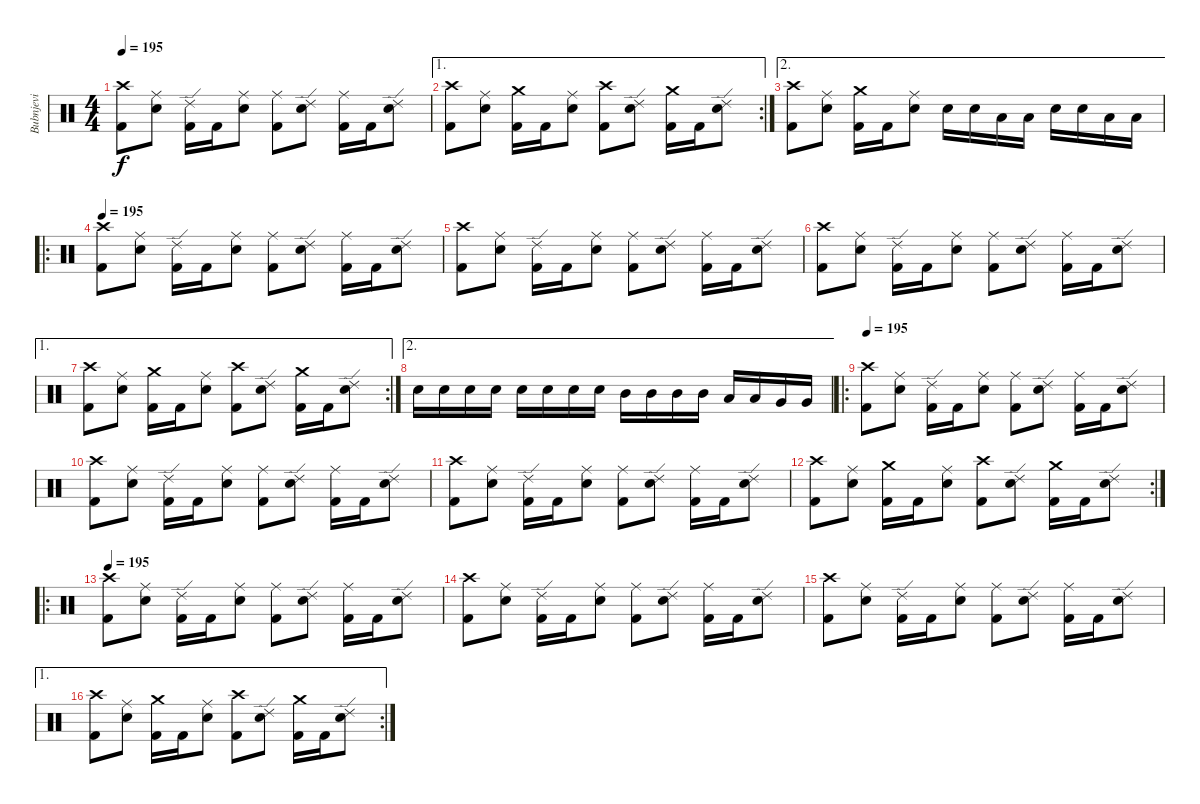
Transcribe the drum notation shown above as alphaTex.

\track ("Bubnjevi" "Bubnjevi") {instrument percussion}
\staff {score}
\articulation defaults
\ts (4 4)
\tempo 195
\clef neutral
\ks c
("Crash high (hit)" "Kick (hit) 2").8{dy f} ("Ride (middle)" "Electric Snare (hit)").8 ("Ride (edge) 2" "Kick (hit) 2").16 "Kick (hit) 2".16 ("Ride (middle)" "Electric Snare (hit)").8 ("Ride (middle)" "Kick (hit) 2").8 ("Ride (edge) 2" "Electric Snare (hit)").8 ("Ride (middle)" "Kick (hit) 2").16 "Kick (hit) 2".16 ("Ride (edge) 2" "Electric Snare (hit)").8 |
\ae 1
\rc 2
("Crash high (hit)" "Kick (hit) 2").8 ("Ride (middle)" "Electric Snare (hit)").8 ("Crash medium (hit)" "Kick (hit) 2").16 "Kick (hit) 2".16 ("Ride (middle)" "Electric Snare (hit)").8 ("Crash high (hit)" "Kick (hit) 2").8 ("Ride (edge) 2" "Electric Snare (hit)").8 ("Crash medium (hit)" "Kick (hit) 2").16 "Kick (hit) 2".16 ("Ride (edge) 2" "Electric Snare (hit)").8 |
\ae 2
("Crash high (hit)" "Kick (hit) 2").8 ("Ride (middle)" "Electric Snare (hit)").8 ("Crash medium (hit)" "Kick (hit) 2").16 "Kick (hit) 2".16 ("Ride (middle)" "Electric Snare (hit)").8 "Electric Snare (hit)".16 "Electric Snare (hit)".16 "Low Tom (hit)".16 "Low Tom (hit)".16 "Electric Snare (hit)".16 "Electric Snare (hit)".16 "Low Tom (hit)".16 "Low Tom (hit)".16 |
\ro
\tempo 195
("Crash high (hit)" "Kick (hit) 2").8 ("Ride (middle)" "Electric Snare (hit)").8 ("Ride (edge) 2" "Kick (hit) 2").16 "Kick (hit) 2".16 ("Ride (middle)" "Electric Snare (hit)").8 ("Ride (middle)" "Kick (hit) 2").8 ("Ride (edge) 2" "Electric Snare (hit)").8 ("Ride (middle)" "Kick (hit) 2").16 "Kick (hit) 2".16 ("Ride (edge) 2" "Electric Snare (hit)").8 |
("Crash high (hit)" "Kick (hit) 2").8 ("Ride (middle)" "Electric Snare (hit)").8 ("Ride (edge) 2" "Kick (hit) 2").16 "Kick (hit) 2".16 ("Ride (middle)" "Electric Snare (hit)").8 ("Ride (middle)" "Kick (hit) 2").8 ("Ride (edge) 2" "Electric Snare (hit)").8 ("Ride (middle)" "Kick (hit) 2").16 "Kick (hit) 2".16 ("Ride (edge) 2" "Electric Snare (hit)").8 |
("Crash high (hit)" "Kick (hit) 2").8 ("Ride (middle)" "Electric Snare (hit)").8 ("Ride (edge) 2" "Kick (hit) 2").16 "Kick (hit) 2".16 ("Ride (middle)" "Electric Snare (hit)").8 ("Ride (middle)" "Kick (hit) 2").8 ("Ride (edge) 2" "Electric Snare (hit)").8 ("Ride (middle)" "Kick (hit) 2").16 "Kick (hit) 2".16 ("Ride (edge) 2" "Electric Snare (hit)").8 |
\ae 1
\rc 2
("Crash high (hit)" "Kick (hit) 2").8 ("Ride (middle)" "Electric Snare (hit)").8 ("Crash medium (hit)" "Kick (hit) 2").16 "Kick (hit) 2".16 ("Ride (middle)" "Electric Snare (hit)").8 ("Crash high (hit)" "Kick (hit) 2").8 ("Ride (edge) 2" "Electric Snare (hit)").8 ("Crash medium (hit)" "Kick (hit) 2").16 "Kick (hit) 2".16 ("Ride (edge) 2" "Electric Snare (hit)").8 |
\ae 2 "Electric Snare (hit)".16 "Electric Snare (hit)".16 "Electric Snare (hit)".16 "Electric Snare (hit)".16 "Electric Snare (hit)".16 "Electric Snare (hit)".16 "Electric Snare (hit)".16 "Electric Snare (hit)".16 "Mid Tom (hit)".16 "Mid Tom (hit)".16 "Mid Tom (hit)".16 "Mid Tom (hit)".16 "Low Tom (hit)".16 "Low Tom (hit)".16 "Very Low Tom (hit)".16 "Very Low Tom (hit)".16
|
\ro
\tempo 195
("Crash high (hit)" "Kick (hit) 2").8 ("Ride (middle)" "Electric Snare (hit)").8 ("Ride (edge) 2" "Kick (hit) 2").16 "Kick (hit) 2".16 ("Ride (middle)" "Electric Snare (hit)").8 ("Ride (middle)" "Kick (hit) 2").8 ("Ride (edge) 2" "Electric Snare (hit)").8 ("Ride (middle)" "Kick (hit) 2").16 "Kick (hit) 2".16 ("Ride (edge) 2" "Electric Snare (hit)").8 |
("Crash high (hit)" "Kick (hit) 2").8 ("Ride (middle)" "Electric Snare (hit)").8 ("Ride (edge) 2" "Kick (hit) 2").16 "Kick (hit) 2".16 ("Ride (middle)" "Electric Snare (hit)").8 ("Ride (middle)" "Kick (hit) 2").8 ("Ride (edge) 2" "Electric Snare (hit)").8 ("Ride (middle)" "Kick (hit) 2").16 "Kick (hit) 2".16 ("Ride (edge) 2" "Electric Snare (hit)").8 |
("Crash high (hit)" "Kick (hit) 2").8 ("Ride (middle)" "Electric Snare (hit)").8 ("Ride (edge) 2" "Kick (hit) 2").16 "Kick (hit) 2".16 ("Ride (middle)" "Electric Snare (hit)").8 ("Ride (middle)" "Kick (hit) 2").8 ("Ride (edge) 2" "Electric Snare (hit)").8 ("Ride (middle)" "Kick (hit) 2").16 "Kick (hit) 2".16 ("Ride (edge) 2" "Electric Snare (hit)").8 |
\rc 2
("Crash high (hit)" "Kick (hit) 2").8 ("Ride (middle)" "Electric Snare (hit)").8 ("Crash medium (hit)" "Kick (hit) 2").16 "Kick (hit) 2".16 ("Ride (middle)" "Electric Snare (hit)").8 ("Crash high (hit)" "Kick (hit) 2").8 ("Ride (edge) 2" "Electric Snare (hit)").8 ("Crash medium (hit)" "Kick (hit) 2").16 "Kick (hit) 2".16 ("Ride (edge) 2" "Electric Snare (hit)").8 |
\ro
\tempo 195
("Crash high (hit)" "Kick (hit) 2").8 ("Ride (middle)" "Electric Snare (hit)").8 ("Ride (edge) 2" "Kick (hit) 2").16 "Kick (hit) 2".16 ("Ride (middle)" "Electric Snare (hit)").8 ("Ride (middle)" "Kick (hit) 2").8 ("Ride (edge) 2" "Electric Snare (hit)").8 ("Ride (middle)" "Kick (hit) 2").16 "Kick (hit) 2".16 ("Ride (edge) 2" "Electric Snare (hit)").8 |
("Crash high (hit)" "Kick (hit) 2").8 ("Ride (middle)" "Electric Snare (hit)").8 ("Ride (edge) 2" "Kick (hit) 2").16 "Kick (hit) 2".16 ("Ride (middle)" "Electric Snare (hit)").8 ("Ride (middle)" "Kick (hit) 2").8 ("Ride (edge) 2" "Electric Snare (hit)").8 ("Ride (middle)" "Kick (hit) 2").16 "Kick (hit) 2".16 ("Ride (edge) 2" "Electric Snare (hit)").8 |
("Crash high (hit)" "Kick (hit) 2").8 ("Ride (middle)" "Electric Snare (hit)").8 ("Ride (edge) 2" "Kick (hit) 2").16 "Kick (hit) 2".16 ("Ride (middle)" "Electric Snare (hit)").8 ("Ride (middle)" "Kick (hit) 2").8 ("Ride (edge) 2" "Electric Snare (hit)").8 ("Ride (middle)" "Kick (hit) 2").16 "Kick (hit) 2".16 ("Ride (edge) 2" "Electric Snare (hit)").8 |
\ae 1
\rc 2
("Crash high (hit)" "Kick (hit) 2").8 ("Ride (middle)" "Electric Snare (hit)").8 ("Crash medium (hit)" "Kick (hit) 2").16 "Kick (hit) 2".16 ("Ride (middle)" "Electric Snare (hit)").8 ("Crash high (hit)" "Kick (hit) 2").8 ("Ride (edge) 2" "Electric Snare (hit)").8 ("Crash medium (hit)" "Kick (hit) 2").16 "Kick (hit) 2".16 ("Ride (edge) 2" "Electric Snare (hit)").8
